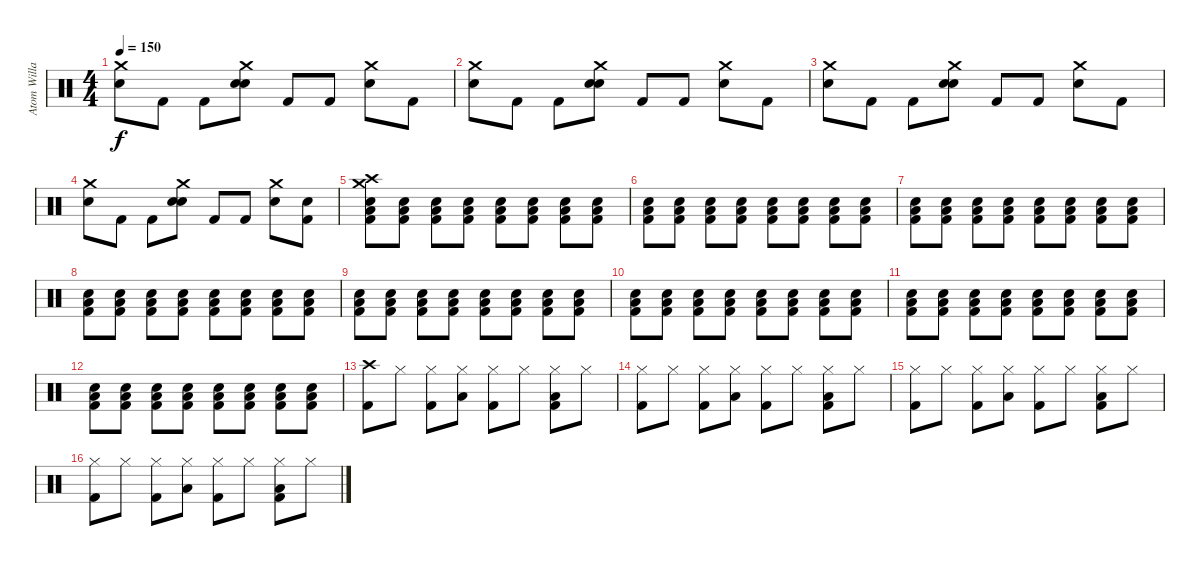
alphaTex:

\track ("Atom Willard Drums" "Atom Willa") {instrument percussion}
\staff {score}
\articulation defaults
\ts (4 4)
\tempo 150
\clef neutral
\ks c
("Crash medium (hit)" "Electric Snare (hit)").8{dy f} "Kick (hit) 2".8 "Kick (hit) 2".8 ("Crash medium (hit)" "Electric Snare (hit)" "Snare (hit)").8 "Kick (hit) 2".8 "Kick (hit) 2".8 ("Crash medium (hit)" "Electric Snare (hit)").8 "Kick (hit) 2".8 |
("Crash medium (hit)" "Electric Snare (hit)").8 "Kick (hit) 2".8 "Kick (hit) 2".8 ("Crash medium (hit)" "Electric Snare (hit)" "Snare (hit)").8 "Kick (hit) 2".8 "Kick (hit) 2".8 ("Crash medium (hit)" "Electric Snare (hit)").8 "Kick (hit) 2".8 |
("Crash medium (hit)" "Electric Snare (hit)").8 "Kick (hit) 2".8 "Kick (hit) 2".8 ("Crash medium (hit)" "Electric Snare (hit)" "Snare (hit)").8 "Kick (hit) 2".8 "Kick (hit) 2".8 ("Crash medium (hit)" "Electric Snare (hit)").8 "Kick (hit) 2".8 |
("Crash medium (hit)" "Electric Snare (hit)").8 "Kick (hit) 2".8 "Kick (hit) 2".8 ("Crash medium (hit)" "Electric Snare (hit)" "Snare (hit)").8 "Kick (hit) 2".8 "Kick (hit) 2".8 ("Crash medium (hit)" "Electric Snare (hit)").8 ("Electric Snare (hit)" "Kick (hit) 2").8 |
("Crash medium (hit)" "Crash high (hit)" "Low Tom (hit)" "Electric Snare (hit)" "Kick (hit) 2").8 ("Low Tom (hit)" "Electric Snare (hit)" "Kick (hit) 2").8 ("Low Tom (hit)" "Electric Snare (hit)" "Kick (hit) 2").8 ("Low Tom (hit)" "Electric Snare (hit)" "Kick (hit) 2").8 ("Low Tom (hit)" "Electric Snare (hit)" "Kick (hit) 2").8 ("Low Tom (hit)" "Electric Snare (hit)" "Kick (hit) 2").8 ("Low Tom (hit)" "Electric Snare (hit)" "Kick (hit) 2").8 ("Low Tom (hit)" "Electric Snare (hit)" "Kick (hit) 2").8 |
("Low Tom (hit)" "Electric Snare (hit)" "Kick (hit) 2").8 ("Low Tom (hit)" "Electric Snare (hit)" "Kick (hit) 2").8 ("Low Tom (hit)" "Electric Snare (hit)" "Kick (hit) 2").8 ("Low Tom (hit)" "Electric Snare (hit)" "Kick (hit) 2").8 ("Low Tom (hit)" "Electric Snare (hit)" "Kick (hit) 2").8 ("Low Tom (hit)" "Electric Snare (hit)" "Kick (hit) 2").8 ("Low Tom (hit)" "Electric Snare (hit)" "Kick (hit) 2").8 ("Low Tom (hit)" "Electric Snare (hit)" "Kick (hit) 2").8 |
("Low Tom (hit)" "Electric Snare (hit)" "Kick (hit) 2").8 ("Low Tom (hit)" "Electric Snare (hit)" "Kick (hit) 2").8 ("Low Tom (hit)" "Electric Snare (hit)" "Kick (hit) 2").8 ("Low Tom (hit)" "Electric Snare (hit)" "Kick (hit) 2").8 ("Low Tom (hit)" "Electric Snare (hit)" "Kick (hit) 2").8 ("Low Tom (hit)" "Electric Snare (hit)" "Kick (hit) 2").8 ("Low Tom (hit)" "Electric Snare (hit)" "Kick (hit) 2").8 ("Low Tom (hit)" "Electric Snare (hit)" "Kick (hit) 2").8 |
("Low Tom (hit)" "Electric Snare (hit)" "Kick (hit) 2").8 ("Low Tom (hit)" "Electric Snare (hit)" "Kick (hit) 2").8 ("Low Tom (hit)" "Electric Snare (hit)" "Kick (hit) 2").8 ("Low Tom (hit)" "Electric Snare (hit)" "Kick (hit) 2").8 ("Low Tom (hit)" "Electric Snare (hit)" "Kick (hit) 2").8 ("Low Tom (hit)" "Electric Snare (hit)" "Kick (hit) 2").8 ("Low Tom (hit)" "Electric Snare (hit)" "Kick (hit) 2").8 ("Low Tom (hit)" "Electric Snare (hit)" "Kick (hit) 2").8 |
("Low Tom (hit)" "Electric Snare (hit)" "Kick (hit) 2").8 ("Low Tom (hit)" "Electric Snare (hit)" "Kick (hit) 2").8 ("Low Tom (hit)" "Electric Snare (hit)" "Kick (hit) 2").8 ("Low Tom (hit)" "Electric Snare (hit)" "Kick (hit) 2").8 ("Low Tom (hit)" "Electric Snare (hit)" "Kick (hit) 2").8 ("Low Tom (hit)" "Electric Snare (hit)" "Kick (hit) 2").8 ("Low Tom (hit)" "Electric Snare (hit)" "Kick (hit) 2").8 ("Low Tom (hit)" "Electric Snare (hit)" "Kick (hit) 2").8 |
("Low Tom (hit)" "Electric Snare (hit)" "Kick (hit) 2").8 ("Low Tom (hit)" "Electric Snare (hit)" "Kick (hit) 2").8 ("Low Tom (hit)" "Electric Snare (hit)" "Kick (hit) 2").8 ("Low Tom (hit)" "Electric Snare (hit)" "Kick (hit) 2").8 ("Low Tom (hit)" "Electric Snare (hit)" "Kick (hit) 2").8 ("Low Tom (hit)" "Electric Snare (hit)" "Kick (hit) 2").8 ("Low Tom (hit)" "Electric Snare (hit)" "Kick (hit) 2").8 ("Low Tom (hit)" "Electric Snare (hit)" "Kick (hit) 2").8 |
("Low Tom (hit)" "Electric Snare (hit)" "Kick (hit) 2").8 ("Low Tom (hit)" "Electric Snare (hit)" "Kick (hit) 2").8 ("Low Tom (hit)" "Electric Snare (hit)" "Kick (hit) 2").8 ("Low Tom (hit)" "Electric Snare (hit)" "Kick (hit) 2").8 ("Low Tom (hit)" "Electric Snare (hit)" "Kick (hit) 2").8 ("Low Tom (hit)" "Electric Snare (hit)" "Kick (hit) 2").8 ("Low Tom (hit)" "Electric Snare (hit)" "Kick (hit) 2").8 ("Low Tom (hit)" "Electric Snare (hit)" "Kick (hit) 2").8 |
("Low Tom (hit)" "Electric Snare (hit)" "Kick (hit) 2").8 ("Low Tom (hit)" "Electric Snare (hit)" "Kick (hit) 2").8 ("Low Tom (hit)" "Electric Snare (hit)" "Kick (hit) 2").8 ("Low Tom (hit)" "Electric Snare (hit)" "Kick (hit) 2").8 ("Low Tom (hit)" "Electric Snare (hit)" "Kick (hit) 2").8 ("Low Tom (hit)" "Electric Snare (hit)" "Kick (hit) 2").8 ("Low Tom (hit)" "Electric Snare (hit)" "Kick (hit) 2").8 ("Low Tom (hit)" "Electric Snare (hit)" "Kick (hit) 2").8 |
("Crash high (hit)" "Kick (hit) 2").8 "Hi-Hat (closed)".8 ("Hi-Hat (closed)" "Kick (hit) 2").8 ("Low Tom (hit)" "Hi-Hat (closed)").8 ("Hi-Hat (closed)" "Kick (hit) 2").8 "Hi-Hat (closed)".8 ("Low Floor Tom (hit)" "Hi-Hat (closed)" "Kick (hit) 2").8 "Hi-Hat (closed)".8 |
("Hi-Hat (closed)" "Kick (hit) 2").8 "Hi-Hat (closed)".8 ("Hi-Hat (closed)" "Kick (hit) 2").8 ("Low Tom (hit)" "Hi-Hat (closed)").8 ("Hi-Hat (closed)" "Kick (hit) 2").8 "Hi-Hat (closed)".8 ("Low Floor Tom (hit)" "Hi-Hat (closed)" "Kick (hit) 2").8 "Hi-Hat (closed)".8 |
("Hi-Hat (closed)" "Kick (hit) 2").8 "Hi-Hat (closed)".8 ("Hi-Hat (closed)" "Kick (hit) 2").8 ("Low Tom (hit)" "Hi-Hat (closed)").8 ("Hi-Hat (closed)" "Kick (hit) 2").8 "Hi-Hat (closed)".8 ("Low Floor Tom (hit)" "Hi-Hat (closed)" "Kick (hit) 2").8 "Hi-Hat (closed)".8 |
("Hi-Hat (closed)" "Kick (hit) 2").8 "Hi-Hat (closed)".8 ("Hi-Hat (closed)" "Kick (hit) 2").8 ("Low Tom (hit)" "Hi-Hat (closed)").8 ("Hi-Hat (closed)" "Kick (hit) 2").8 "Hi-Hat (closed)".8 ("Low Floor Tom (hit)" "Hi-Hat (closed)" "Kick (hit) 2").8 "Hi-Hat (closed)".8
